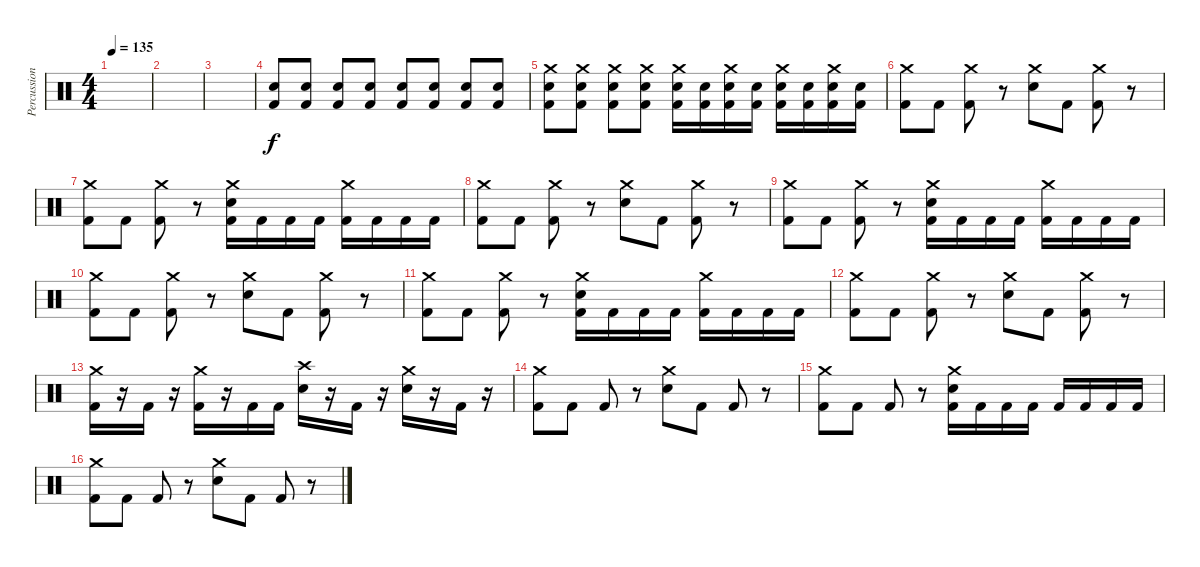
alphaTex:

\track ("Percussion" "Percussion") {instrument percussion}
\staff {score}
\articulation defaults
\ts (4 4)
\tempo 135
\clef neutral
\ks c
|
|
|
("Electric Snare (hit)" "Kick (hit) 2").8{volume 0} ("Electric Snare (hit)" "Kick (hit) 2").8{volume 4} ("Electric Snare (hit)" "Kick (hit) 2").8{volume 5} ("Electric Snare (hit)" "Kick (hit) 2").8{volume 6} ("Electric Snare (hit)" "Kick (hit) 2").8{volume 7} ("Electric Snare (hit)" "Kick (hit) 2").8{volume 9} ("Electric Snare (hit)" "Kick (hit) 2").8{volume 10} ("Electric Snare (hit)" "Kick (hit) 2").8{volume 11} |
("Crash medium (hit)" "Electric Snare (hit)" "Kick (hit) 2").8{volume 12} ("Crash medium (hit)" "Electric Snare (hit)" "Kick (hit) 2").8{volume 12} ("Crash medium (hit)" "Electric Snare (hit)" "Kick (hit) 2").8{volume 13} ("Crash medium (hit)" "Electric Snare (hit)" "Kick (hit) 2").8{volume 14} ("Crash medium (hit)" "Electric Snare (hit)" "Kick (hit) 2").16{volume 15} ("Electric Snare (hit)" "Kick (hit) 2").16 ("Crash medium (hit)" "Electric Snare (hit)" "Kick (hit) 2").16 ("Electric Snare (hit)" "Kick (hit) 2").16 ("Crash medium (hit)" "Electric Snare (hit)" "Kick (hit) 2").16 ("Electric Snare (hit)" "Kick (hit) 2").16 ("Crash medium (hit)" "Electric Snare (hit)" "Kick (hit) 2").16 ("Electric Snare (hit)" "Kick (hit) 2").16 |
("Crash medium (hit)" "Kick (hit) 2").8 "Kick (hit) 2".8 ("Crash medium (hit)" "Kick (hit) 2").8 r.8 ("Crash medium (hit)" "Electric Snare (hit)").8 "Kick (hit) 2".8 ("Crash medium (hit)" "Kick (hit) 2").8 r.8 |
("Crash medium (hit)" "Kick (hit) 2").8 "Kick (hit) 2".8 ("Crash medium (hit)" "Kick (hit) 2").8 r.8 ("Crash medium (hit)" "Electric Snare (hit)" "Kick (hit) 2").16 "Kick (hit) 2".16 "Kick (hit) 2".16 "Kick (hit) 2".16 ("Crash medium (hit)" "Kick (hit) 2").16 "Kick (hit) 2".16 "Kick (hit) 2".16 "Kick (hit) 2".16 |
("Crash medium (hit)" "Kick (hit) 2").8 "Kick (hit) 2".8 ("Crash medium (hit)" "Kick (hit) 2").8 r.8 ("Crash medium (hit)" "Electric Snare (hit)").8 "Kick (hit) 2".8 ("Crash medium (hit)" "Kick (hit) 2").8 r.8 |
("Crash medium (hit)" "Kick (hit) 2").8 "Kick (hit) 2".8 ("Crash medium (hit)" "Kick (hit) 2").8 r.8 ("Crash medium (hit)" "Electric Snare (hit)" "Kick (hit) 2").16 "Kick (hit) 2".16 "Kick (hit) 2".16 "Kick (hit) 2".16 ("Crash medium (hit)" "Kick (hit) 2").16 "Kick (hit) 2".16 "Kick (hit) 2".16 "Kick (hit) 2".16 |
("Crash medium (hit)" "Kick (hit) 2").8 "Kick (hit) 2".8 ("Crash medium (hit)" "Kick (hit) 2").8 r.8 ("Crash medium (hit)" "Electric Snare (hit)").8 "Kick (hit) 2".8 ("Crash medium (hit)" "Kick (hit) 2").8 r.8 |
("Crash medium (hit)" "Kick (hit) 2").8 "Kick (hit) 2".8 ("Crash medium (hit)" "Kick (hit) 2").8 r.8 ("Crash medium (hit)" "Electric Snare (hit)" "Kick (hit) 2").16 "Kick (hit) 2".16 "Kick (hit) 2".16 "Kick (hit) 2".16 ("Crash medium (hit)" "Kick (hit) 2").16 "Kick (hit) 2".16 "Kick (hit) 2".16 "Kick (hit) 2".16 |
("Crash medium (hit)" "Kick (hit) 2").8 "Kick (hit) 2".8 ("Crash medium (hit)" "Kick (hit) 2").8 r.8 ("Crash medium (hit)" "Electric Snare (hit)").8 "Kick (hit) 2".8 ("Crash medium (hit)" "Kick (hit) 2").8 r.8 |
("Crash medium (hit)" "Kick (hit) 2").16 r.16 "Kick (hit) 2".16 r.16 ("Crash medium (hit)" "Kick (hit) 2").16 r.16 "Kick (hit) 2".16 "Kick (hit) 2".16 ("Crash high (hit)" "Electric Snare (hit)").16 r.16 "Kick (hit) 2".16 r.16 ("Crash medium (hit)" "Electric Snare (hit)").16 r.16 "Kick (hit) 2".16 r.16 |
("Crash medium (hit)" "Kick (hit) 2").8 "Kick (hit) 2".8 "Kick (hit) 2".8 r.8 ("Crash medium (hit)" "Electric Snare (hit)").8 "Kick (hit) 2".8 "Kick (hit) 2".8 r.8 |
("Crash medium (hit)" "Kick (hit) 2").8 "Kick (hit) 2".8 "Kick (hit) 2".8 r.8 ("Crash medium (hit)" "Electric Snare (hit)" "Kick (hit) 2").16 "Kick (hit) 2".16 "Kick (hit) 2".16 "Kick (hit) 2".16 "Kick (hit) 2".16 "Kick (hit) 2".16 "Kick (hit) 2".16 "Kick (hit) 2".16 |
("Crash medium (hit)" "Kick (hit) 2").8 "Kick (hit) 2".8 "Kick (hit) 2".8 r.8 ("Crash medium (hit)" "Electric Snare (hit)").8 "Kick (hit) 2".8 "Kick (hit) 2".8 r.8
